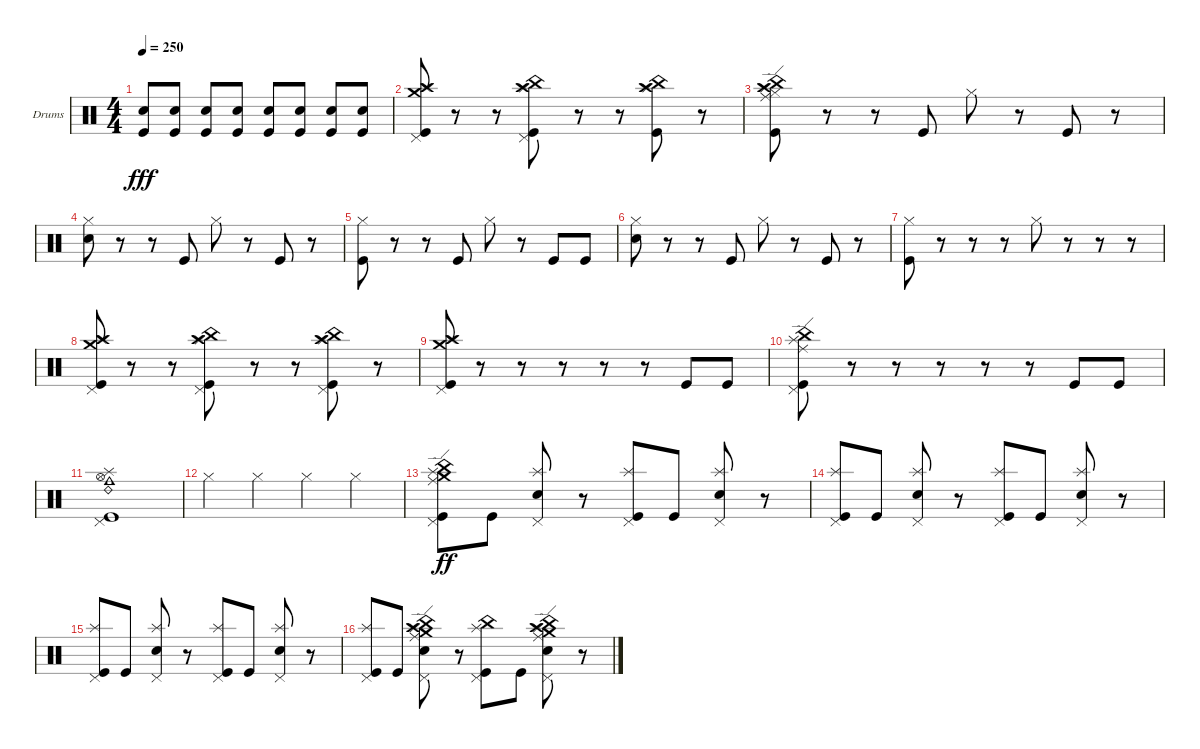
\defaultSystemsLayout 4
\bracketExtendMode groupsimilarinstruments
\firstSystemTrackNameOrientation horizontal
\otherSystemsTrackNameOrientation horizontal
\track ("Драмки" "Drums") {instrument percussion}
\staff {score}
\articulation defaults
\ts (4 4)
\tempo 250
\clef neutral
\ks c
("Snare (hit) 2" "Kick (hit)").8{dy fff} ("Kick (hit)" "Snare (hit) 2").8 ("Kick (hit)" "Snare (hit) 2").8 ("Kick (hit)" "Snare (hit) 2").8 ("Kick (hit)" "Snare (hit) 2").8 ("Kick (hit)" "Snare (hit) 2").8 ("Kick (hit)" "Snare (hit) 2").8 ("Kick (hit)" "Snare (hit) 2").8 |
("Splash (hit)" "Crash high (hit)" "Crash medium (hit)" "Pedal Hi-Hat (hit)" "Kick (hit)").8 r.8 r.8 ("Crash high (hit)" "China (hit)" "Splash (hit)" "Pedal Hi-Hat (hit)" "Kick (hit)").8 r.8 r.8 ("Kick (hit)" "Splash (hit)" "Crash high (hit)" "China (hit)").8 r.8 |
("Kick (hit)" "Hi-Hat (closed)" "Splash (hit)" "Crash high (hit)" "China (hit)" "Ride (edge)").8 r.8 r.8 "Kick (hit)".8 "Hi-Hat (closed)".8 r.8 "Kick (hit)".8 r.8 |
("Snare (hit) 2" "Hi-Hat (closed)").8 r.8 r.8 "Kick (hit)".8 "Hi-Hat (closed)".8 r.8 "Kick (hit)".8 r.8 |
("Hi-Hat (closed)" "Kick (hit)").8 r.8 r.8 "Kick (hit)".8 "Hi-Hat (closed)".8 r.8 "Kick (hit)".8 "Kick (hit)".8 |
("Hi-Hat (closed)" "Snare (hit) 2").8 r.8 r.8 "Kick (hit)".8 "Hi-Hat (closed)".8 r.8 "Kick (hit)".8 r.8 |
("Kick (hit)" "Hi-Hat (closed)").8 r.8 r.8 r.8 "Hi-Hat (closed)".8 r.8 r.8 r.8 |
("Splash (hit)" "Crash high (hit)" "Crash medium (hit)" "Pedal Hi-Hat (hit)" "Kick (hit)").8 r.8 r.8 ("Pedal Hi-Hat (hit)" "Kick (hit)" "Splash (hit)" "Crash high (hit)" "China (hit)").8 r.8 r.8 ("Kick (hit)" "Splash (hit)" "Crash high (hit)" "China (hit)" "Pedal Hi-Hat (hit)").8 r.8 |
("Kick (hit)" "Splash (hit)" "Crash high (hit)" "Crash medium (hit)" "Pedal Hi-Hat (hit)").8 r.8 r.8 r.8 r.8 r.8 "Kick (hit)".8 "Kick (hit)".8 |
("Splash (hit)" "Pedal Hi-Hat (hit)" "Kick (hit)" "Ride (edge)" "China (hit)").8 r.8 r.8 r.8 r.8 r.8 "Kick (hit)".8 "Kick (hit)".8 |
("Splash (hit)" "Hi-Hat (open)" "Pedal Hi-Hat (hit)" "Kick (hit)" "Ride (bell) 2" "Cowbell medium (hit)").1 |
"Hi-Hat (closed)".4 "Hi-Hat (closed)".4 "Hi-Hat (closed)".4 "Hi-Hat (closed)".4 |
("Splash (hit)" "Kick (hit)" "Crash medium (hit)" "China (hit)" "Ride (edge)" "Pedal Hi-Hat (hit)").8{dy ff} "Kick (hit)".8 ("Snare (hit) 2" "Splash (hit)" "Pedal Hi-Hat (hit)").8 r.8 ("Splash (hit)" "Kick (hit)" "Pedal Hi-Hat (hit)").8 "Kick (hit)".8 ("Snare (hit) 2" "Splash (hit)" "Pedal Hi-Hat (hit)").8 r.8 |
("Kick (hit)" "Splash (hit)" "Pedal Hi-Hat (hit)").8 "Kick (hit)".8 ("Snare (hit) 2" "Splash (hit)" "Pedal Hi-Hat (hit)").8 r.8 ("Kick (hit)" "Splash (hit)" "Pedal Hi-Hat (hit)").8 "Kick (hit)".8 ("Snare (hit) 2" "Splash (hit)" "Pedal Hi-Hat (hit)").8 r.8 |
("Kick (hit)" "Splash (hit)" "Pedal Hi-Hat (hit)").8 "Kick (hit)".8 ("Snare (hit) 2" "Splash (hit)" "Pedal Hi-Hat (hit)").8 r.8 ("Kick (hit)" "Splash (hit)" "Pedal Hi-Hat (hit)").8 "Kick (hit)".8 ("Snare (hit) 2" "Splash (hit)" "Pedal Hi-Hat (hit)").8 r.8 |
("Kick (hit)" "Splash (hit)" "Pedal Hi-Hat (hit)").8 "Kick (hit)".8 ("Snare (hit) 2" "Splash (hit)" "Pedal Hi-Hat (hit)" "China (hit)" "Ride (edge)" "Crash high (hit)" "Crash medium (hit)").8 r.8 ("Splash (hit)" "Pedal Hi-Hat (hit)" "China (hit)" "Kick (hit)").8 "Kick (hit)".8 ("Snare (hit) 2" "Splash (hit)" "Pedal Hi-Hat (hit)" "China (hit)" "Crash high (hit)" "Ride (edge)" "Crash medium (hit)").8 r.8
